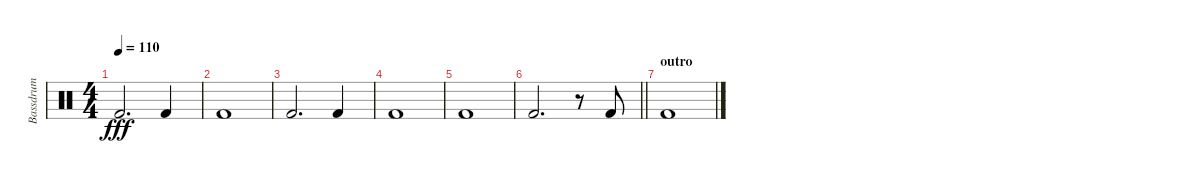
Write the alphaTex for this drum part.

\track ("Bassdrum" "Bassdrum") {instrument percussion}
\staff {score}
\articulation defaults
\ts (4 4)
\tempo 110
\clef neutral
\ks c "Kick (hit) 2".2{d dy fff} "Kick (hit) 2".4
|
"Kick (hit) 2".1 |
"Kick (hit) 2".2{d} "Kick (hit) 2".4 |
"Kick (hit) 2".1 |
"Kick (hit) 2".1 |
\barLineRight lightlight "Kick (hit) 2".2{d}
r.8 "Kick (hit) 2".8 |
\section ("" "outro")
"Kick (hit) 2".1
